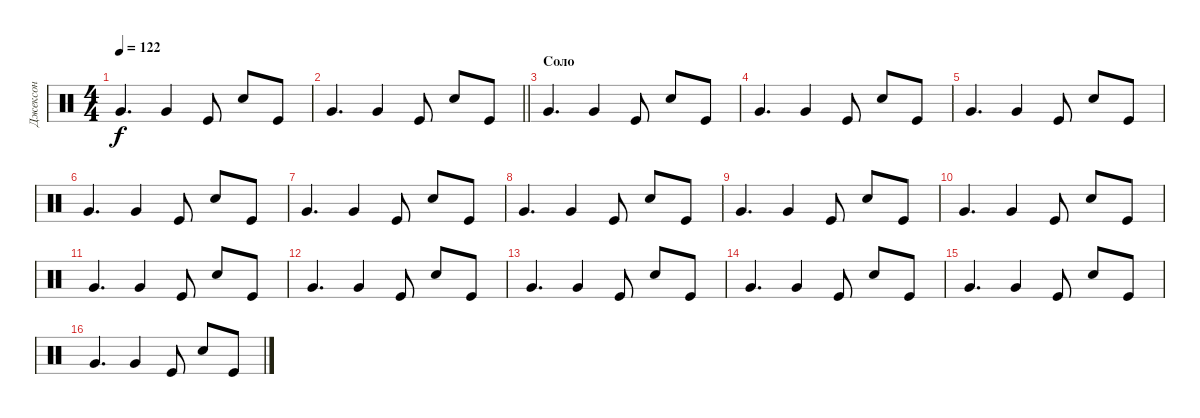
\track ("Джексон" "Джексон") {instrument percussion}
\staff {score}
\articulation defaults
\ts (4 4)
\tempo 122
\clef neutral
\ks c "Very Low Tom (hit)".4{d dy f} "Very Low Tom (hit)".4 "Kick (hit)".8 "Snare (hit) 2".8 "Kick (hit)".8
|
\barLineRight lightlight "Very Low Tom (hit)".4{d} "Very Low Tom (hit)".4 "Kick (hit)".8 "Snare (hit) 2".8 "Kick (hit)".8
|
\section ("" "Соло")
"Very Low Tom (hit)".4{d} "Very Low Tom (hit)".4 "Kick (hit)".8 "Snare (hit) 2".8 "Kick (hit)".8 |
"Very Low Tom (hit)".4{d} "Very Low Tom (hit)".4 "Kick (hit)".8 "Snare (hit) 2".8 "Kick (hit)".8 |
"Very Low Tom (hit)".4{d} "Very Low Tom (hit)".4 "Kick (hit)".8 "Snare (hit) 2".8 "Kick (hit)".8 |
"Very Low Tom (hit)".4{d} "Very Low Tom (hit)".4 "Kick (hit)".8 "Snare (hit) 2".8 "Kick (hit)".8 |
"Very Low Tom (hit)".4{d} "Very Low Tom (hit)".4 "Kick (hit)".8 "Snare (hit) 2".8 "Kick (hit)".8 |
"Very Low Tom (hit)".4{d} "Very Low Tom (hit)".4 "Kick (hit)".8 "Snare (hit) 2".8 "Kick (hit)".8 |
"Very Low Tom (hit)".4{d} "Very Low Tom (hit)".4 "Kick (hit)".8 "Snare (hit) 2".8 "Kick (hit)".8 |
"Very Low Tom (hit)".4{d} "Very Low Tom (hit)".4 "Kick (hit)".8 "Snare (hit) 2".8 "Kick (hit)".8 |
"Very Low Tom (hit)".4{d} "Very Low Tom (hit)".4 "Kick (hit)".8 "Snare (hit) 2".8 "Kick (hit)".8 |
"Very Low Tom (hit)".4{d} "Very Low Tom (hit)".4 "Kick (hit)".8 "Snare (hit) 2".8 "Kick (hit)".8 |
"Very Low Tom (hit)".4{d} "Very Low Tom (hit)".4 "Kick (hit)".8 "Snare (hit) 2".8 "Kick (hit)".8 |
"Very Low Tom (hit)".4{d} "Very Low Tom (hit)".4 "Kick (hit)".8 "Snare (hit) 2".8 "Kick (hit)".8 |
"Very Low Tom (hit)".4{d} "Very Low Tom (hit)".4 "Kick (hit)".8 "Snare (hit) 2".8 "Kick (hit)".8 |
"Very Low Tom (hit)".4{d} "Very Low Tom (hit)".4 "Kick (hit)".8 "Snare (hit) 2".8 "Kick (hit)".8
